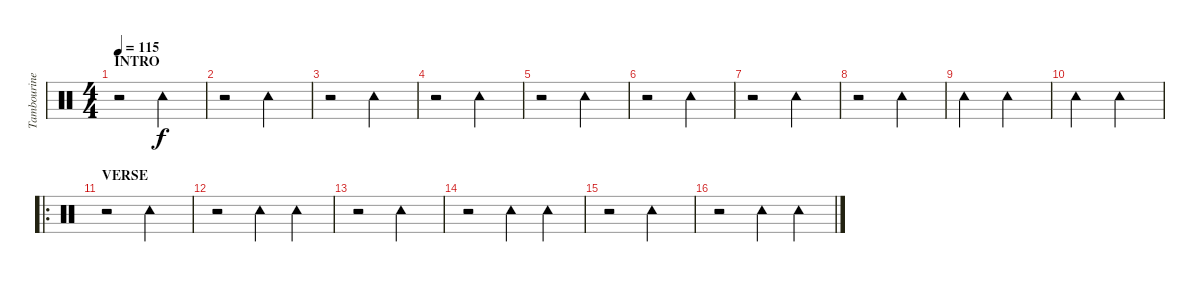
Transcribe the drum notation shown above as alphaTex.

\track ("Tambourine" "Tambourine") {instrument percussion}
\staff {score}
\articulation defaults
\ts (4 4)
\section ("" "INTRO")
\tempo 115
\clef neutral
\ks c
r.2{dy f} "Tambourine (hit)".2 |
r.2 "Tambourine (hit)".2 |
r.2 "Tambourine (hit)".2 |
r.2 "Tambourine (hit)".2 |
r.2 "Tambourine (hit)".2 |
r.2 "Tambourine (hit)".2 |
r.2 "Tambourine (hit)".2 |
r.2 "Tambourine (hit)".2 |
"Tambourine (hit)".2 "Tambourine (hit)".2 |
"Tambourine (hit)".2 "Tambourine (hit)".2 |
\ro
\section ("" "VERSE")
r.2{volume 7} "Tambourine (hit)".2 |
r.2 "Tambourine (hit)".4 "Tambourine (hit)".4 |
r.2 "Tambourine (hit)".2 |
r.2 "Tambourine (hit)".4 "Tambourine (hit)".4 |
r.2 "Tambourine (hit)".2 |
r.2 "Tambourine (hit)".4 "Tambourine (hit)".4
